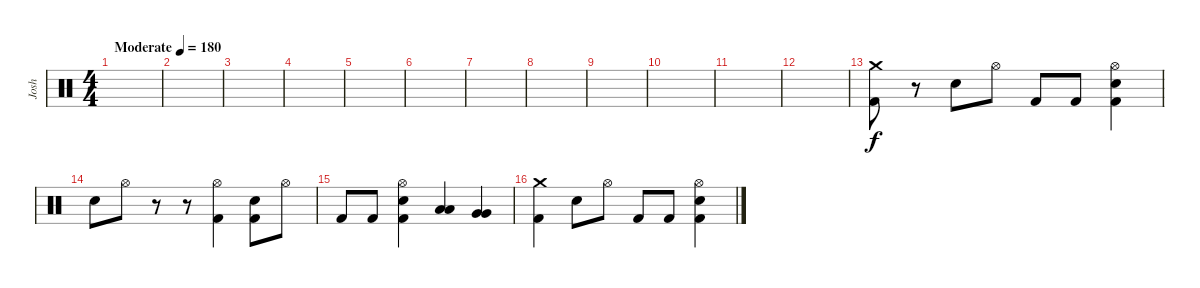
\track ("Josh" "Josh") {instrument percussion}
\staff {score}
\articulation defaults
\ts (4 4)
\tempo (180 "Moderate")
\clef neutral
\ks c
|
|
|
|
|
|
|
|
|
|
|
|
("Crash medium (hit)" "Kick (hit) 2").8 r.8 "Electric Snare (hit)".8 "Hi-Hat (open)".8 "Kick (hit) 2".8 "Kick (hit) 2".8 ("Hi-Hat (open)" "Electric Snare (hit)" "Kick (hit) 2").4 |
"Electric Snare (hit)".8 "Hi-Hat (open)".8 r.8 r.8 ("Hi-Hat (open)" "Kick (hit) 2").4 ("Electric Snare (hit)" "Kick (hit) 2").8 "Hi-Hat (open)".8 |
"Kick (hit) 2".8 "Kick (hit) 2".8 ("Hi-Hat (open)" "Electric Snare (hit)" "Kick (hit) 2").4 ("Low Tom (hit)" "Low Tom (hit)").4 ("Very Low Tom (hit)" "Very Low Tom (hit)").4 |
("Crash medium (hit)" "Kick (hit) 2").4 "Electric Snare (hit)".8 "Hi-Hat (open)".8 "Kick (hit) 2".8 "Kick (hit) 2".8 ("Hi-Hat (open)" "Electric Snare (hit)" "Kick (hit) 2").4
